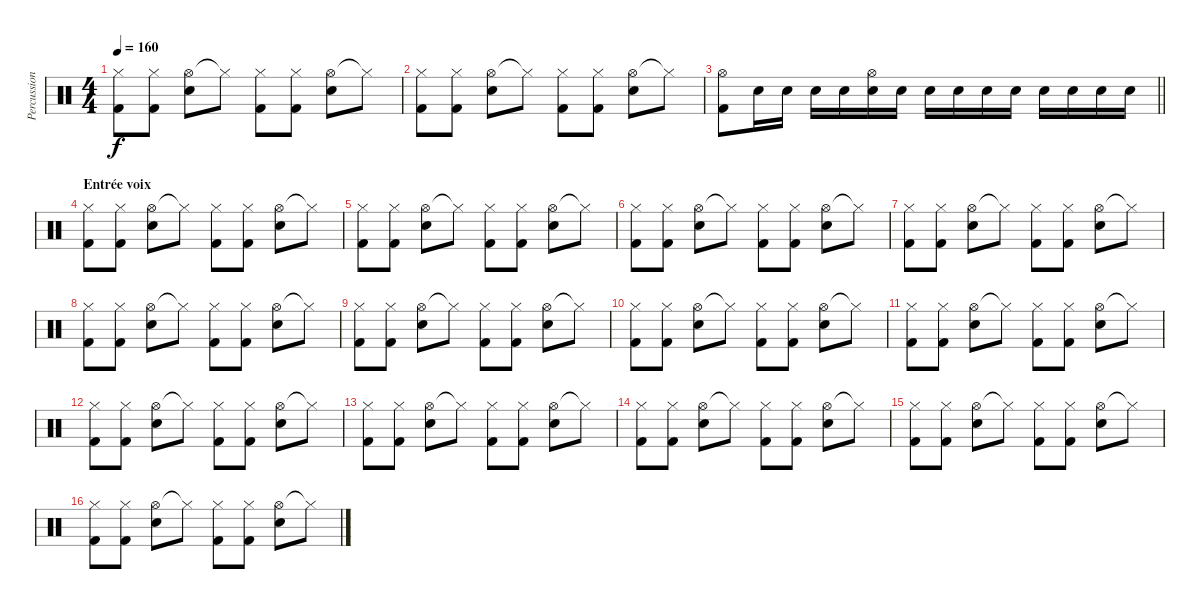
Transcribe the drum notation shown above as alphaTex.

\track ("Percussions" "Percussion") {instrument percussion}
\staff {score}
\articulation defaults
\ts (4 4)
\tempo 160
\clef neutral
\ks c
("Hi-Hat (closed)" "Kick (hit) 2").8{dy f} ("Hi-Hat (closed)" "Kick (hit) 2").8 ("Hi-Hat (open)" "Snare (hit) 2").8 "Hi-Hat (closed)"{t}.8 ("Hi-Hat (closed)" "Kick (hit) 2").8 ("Hi-Hat (closed)" "Kick (hit) 2").8 ("Hi-Hat (open)" "Snare (hit) 2").8 "Hi-Hat (closed)"{t}.8 |
("Hi-Hat (closed)" "Kick (hit) 2").8 ("Hi-Hat (closed)" "Kick (hit) 2").8 ("Hi-Hat (open)" "Snare (hit) 2").8 "Hi-Hat (closed)"{t}.8 ("Hi-Hat (closed)" "Kick (hit) 2").8 ("Hi-Hat (closed)" "Kick (hit) 2").8 ("Hi-Hat (open)" "Snare (hit) 2").8 "Hi-Hat (closed)"{t}.8 |
\barLineRight lightlight
("Hi-Hat (open)" "Kick (hit) 2").8 "Snare (hit) 2".16 "Snare (hit) 2".16 "Snare (hit) 2".16 "Snare (hit) 2".16 ("Hi-Hat (open)" "Snare (hit) 2").16 "Snare (hit) 2".16 "Snare (hit) 2".16 "Snare (hit) 2".16 "Snare (hit) 2".16 "Snare (hit) 2".16 "Snare (hit) 2".16 "Snare (hit) 2".16 "Snare (hit) 2".16 "Snare (hit) 2".16 |
\section ("" "Entrée voix")
("Hi-Hat (closed)" "Kick (hit) 2").8 ("Hi-Hat (closed)" "Kick (hit) 2").8 ("Hi-Hat (open)" "Snare (hit) 2").8 "Hi-Hat (closed)"{t}.8 ("Hi-Hat (closed)" "Kick (hit) 2").8 ("Hi-Hat (closed)" "Kick (hit) 2").8 ("Hi-Hat (open)" "Snare (hit) 2").8 "Hi-Hat (closed)"{t}.8 |
("Hi-Hat (closed)" "Kick (hit) 2").8 ("Hi-Hat (closed)" "Kick (hit) 2").8 ("Hi-Hat (open)" "Snare (hit) 2").8 "Hi-Hat (closed)"{t}.8 ("Hi-Hat (closed)" "Kick (hit) 2").8 ("Hi-Hat (closed)" "Kick (hit) 2").8 ("Hi-Hat (open)" "Snare (hit) 2").8 "Hi-Hat (closed)"{t}.8 |
("Hi-Hat (closed)" "Kick (hit) 2").8 ("Hi-Hat (closed)" "Kick (hit) 2").8 ("Hi-Hat (open)" "Snare (hit) 2").8 "Hi-Hat (closed)"{t}.8 ("Hi-Hat (closed)" "Kick (hit) 2").8 ("Hi-Hat (closed)" "Kick (hit) 2").8 ("Hi-Hat (open)" "Snare (hit) 2").8 "Hi-Hat (closed)"{t}.8 |
("Hi-Hat (closed)" "Kick (hit) 2").8 ("Hi-Hat (closed)" "Kick (hit) 2").8 ("Hi-Hat (open)" "Snare (hit) 2").8 "Hi-Hat (closed)"{t}.8 ("Hi-Hat (closed)" "Kick (hit) 2").8 ("Hi-Hat (closed)" "Kick (hit) 2").8 ("Hi-Hat (open)" "Snare (hit) 2").8 "Hi-Hat (closed)"{t}.8 |
("Hi-Hat (closed)" "Kick (hit) 2").8 ("Hi-Hat (closed)" "Kick (hit) 2").8 ("Hi-Hat (open)" "Snare (hit) 2").8 "Hi-Hat (closed)"{t}.8 ("Hi-Hat (closed)" "Kick (hit) 2").8 ("Hi-Hat (closed)" "Kick (hit) 2").8 ("Hi-Hat (open)" "Snare (hit) 2").8 "Hi-Hat (closed)"{t}.8 |
("Hi-Hat (closed)" "Kick (hit) 2").8 ("Hi-Hat (closed)" "Kick (hit) 2").8 ("Hi-Hat (open)" "Snare (hit) 2").8 "Hi-Hat (closed)"{t}.8 ("Hi-Hat (closed)" "Kick (hit) 2").8 ("Hi-Hat (closed)" "Kick (hit) 2").8 ("Hi-Hat (open)" "Snare (hit) 2").8 "Hi-Hat (closed)"{t}.8 |
("Hi-Hat (closed)" "Kick (hit) 2").8 ("Hi-Hat (closed)" "Kick (hit) 2").8 ("Hi-Hat (open)" "Snare (hit) 2").8 "Hi-Hat (closed)"{t}.8 ("Hi-Hat (closed)" "Kick (hit) 2").8 ("Hi-Hat (closed)" "Kick (hit) 2").8 ("Hi-Hat (open)" "Snare (hit) 2").8 "Hi-Hat (closed)"{t}.8 |
("Hi-Hat (closed)" "Kick (hit) 2").8 ("Hi-Hat (closed)" "Kick (hit) 2").8 ("Hi-Hat (open)" "Snare (hit) 2").8 "Hi-Hat (closed)"{t}.8 ("Hi-Hat (closed)" "Kick (hit) 2").8 ("Hi-Hat (closed)" "Kick (hit) 2").8 ("Hi-Hat (open)" "Snare (hit) 2").8 "Hi-Hat (closed)"{t}.8 |
("Hi-Hat (closed)" "Kick (hit) 2").8 ("Hi-Hat (closed)" "Kick (hit) 2").8 ("Hi-Hat (open)" "Snare (hit) 2").8 "Hi-Hat (closed)"{t}.8 ("Hi-Hat (closed)" "Kick (hit) 2").8 ("Hi-Hat (closed)" "Kick (hit) 2").8 ("Hi-Hat (open)" "Snare (hit) 2").8 "Hi-Hat (closed)"{t}.8 |
("Hi-Hat (closed)" "Kick (hit) 2").8 ("Hi-Hat (closed)" "Kick (hit) 2").8 ("Hi-Hat (open)" "Snare (hit) 2").8 "Hi-Hat (closed)"{t}.8 ("Hi-Hat (closed)" "Kick (hit) 2").8 ("Hi-Hat (closed)" "Kick (hit) 2").8 ("Hi-Hat (open)" "Snare (hit) 2").8 "Hi-Hat (closed)"{t}.8 |
("Hi-Hat (closed)" "Kick (hit) 2").8 ("Hi-Hat (closed)" "Kick (hit) 2").8 ("Hi-Hat (open)" "Snare (hit) 2").8 "Hi-Hat (closed)"{t}.8 ("Hi-Hat (closed)" "Kick (hit) 2").8 ("Hi-Hat (closed)" "Kick (hit) 2").8 ("Hi-Hat (open)" "Snare (hit) 2").8 "Hi-Hat (closed)"{t}.8 |
("Hi-Hat (closed)" "Kick (hit) 2").8 ("Hi-Hat (closed)" "Kick (hit) 2").8 ("Hi-Hat (open)" "Snare (hit) 2").8 "Hi-Hat (closed)"{t}.8 ("Hi-Hat (closed)" "Kick (hit) 2").8 ("Hi-Hat (closed)" "Kick (hit) 2").8 ("Hi-Hat (open)" "Snare (hit) 2").8 "Hi-Hat (closed)"{t}.8 |
("Hi-Hat (closed)" "Kick (hit) 2").8 ("Hi-Hat (closed)" "Kick (hit) 2").8 ("Hi-Hat (open)" "Snare (hit) 2").8 "Hi-Hat (closed)"{t}.8 ("Hi-Hat (closed)" "Kick (hit) 2").8 ("Hi-Hat (closed)" "Kick (hit) 2").8 ("Hi-Hat (open)" "Snare (hit) 2").8 "Hi-Hat (closed)"{t}.8
